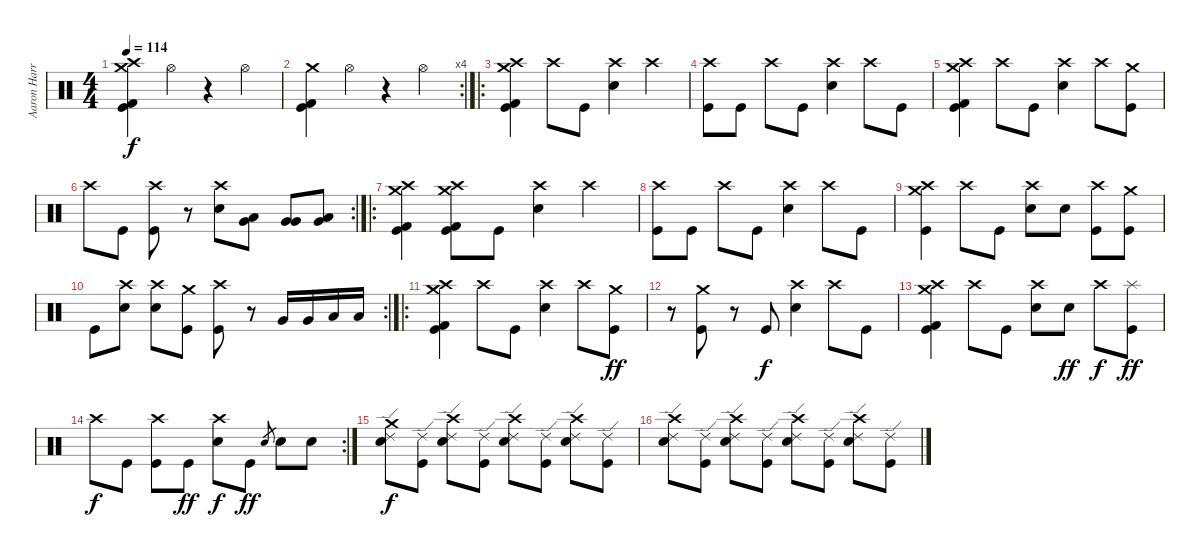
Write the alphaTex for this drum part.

\track ("Aaron Harris" "Aaron Harr") {instrument percussion}
\staff {score}
\articulation defaults
\ts (4 4)
\tempo 114
\clef neutral
\ks c
("Crash medium (hit)" "Crash high (hit)" "Kick (hit) 2" "Kick (hit)").4{dy f} "Hi-Hat (open)".4 r.4 "Hi-Hat (open)".4 |
\rc 4
("Crash medium (hit)" "Kick (hit) 2" "Kick (hit)").4 "Hi-Hat (open)".4 r.4 "Hi-Hat (open)".4 |
\ro
("Crash medium (hit)" "Crash high (hit)" "Kick (hit) 2" "Kick (hit)").4 "Crash high (hit)".8 "Kick (hit)".8 ("Crash high (hit)" "Electric Snare (hit)").4 "Crash high (hit)".4 |
("Crash high (hit)" "Kick (hit)").8 "Kick (hit)".8 "Crash high (hit)".8 "Kick (hit)".8 ("Crash high (hit)" "Electric Snare (hit)").4 "Crash high (hit)".8 "Kick (hit)".8 |
("Crash medium (hit)" "Crash high (hit)" "Kick (hit) 2" "Kick (hit)").4 "Crash high (hit)".8 "Kick (hit)".8 ("Crash high (hit)" "Electric Snare (hit)").4 "Crash high (hit)".8 ("Crash medium (hit)" "Kick (hit)").8 |
\rc 2 "Crash high (hit)".8 "Kick (hit)".8
("Crash high (hit)" "Kick (hit)").8 r.8 ("Crash high (hit)" "Electric Snare (hit)").8 ("Low Tom (hit)" "Very Low Tom (hit)").8 ("Very Low Tom (hit)" "Very Low Tom (hit)").8 ("Very Low Tom (hit)" "Low Floor Tom (hit)").8 |
\ro
("Crash medium (hit)" "Crash high (hit)" "Kick (hit) 2" "Kick (hit)").4 ("Crash medium (hit)" "Crash high (hit)" "Kick (hit) 2" "Kick (hit)").8 "Kick (hit)".8 ("Crash high (hit)" "Electric Snare (hit)").4 "Crash high (hit)".4 |
("Crash high (hit)" "Kick (hit)").8 "Kick (hit)".8 "Crash high (hit)".8 "Kick (hit)".8 ("Crash high (hit)" "Electric Snare (hit)").4 "Crash high (hit)".8 "Kick (hit)".8 |
("Crash medium (hit)" "Crash high (hit)" "Kick (hit)").4 "Crash high (hit)".8 "Kick (hit)".8 ("Crash high (hit)" "Electric Snare (hit)").8 "Electric Snare (hit)".8 ("Crash high (hit)" "Kick (hit)").8 ("Crash medium (hit)" "Kick (hit)").8 |
\rc 2 "Kick (hit)".8
("Crash high (hit)" "Electric Snare (hit)").8 ("Crash high (hit)" "Electric Snare (hit)").8 ("Crash medium (hit)" "Kick (hit)").8 ("Crash high (hit)" "Kick (hit)").8 r.8 "Very Low Tom (hit)".16 "Very Low Tom (hit)".16 "Low Floor Tom (hit)".16 "Low Floor Tom (hit)".16 |
\ro
("Crash medium (hit)" "Crash high (hit)" "Kick (hit) 2" "Kick (hit)").4 "Crash high (hit)".8 "Kick (hit)".8 ("Crash high (hit)" "Electric Snare (hit)").4 "Crash high (hit)".8 ("Crash medium (hit)" "Kick (hit)").8{dy ff} |
r.8 ("Crash medium (hit)" "Kick (hit)").8 r.8 "Kick (hit)".8{dy f} ("Crash high (hit)" "Electric Snare (hit)").4 "Crash high (hit)".8 "Kick (hit)".8 |
("Crash medium (hit)" "Crash high (hit)" "Kick (hit) 2" "Kick (hit)").4 "Crash high (hit)".8 "Kick (hit)".8 ("Crash high (hit)" "Electric Snare (hit)").8 "Electric Snare (hit)".8{dy ff} "Crash high (hit)".8{dy f} ("Splash (hit)" "Kick (hit)").8{dy ff} |
\rc 2 "Crash high (hit)".8{dy f} "Kick (hit)".8
("Crash high (hit)" "Kick (hit)").8 "Kick (hit)".8{dy ff} ("Crash high (hit)" "Electric Snare (hit)").8{dy f} "Kick (hit)".8{dy ff} "Electric Snare (hit)".8{gr} "Electric Snare (hit)".8 "Electric Snare (hit)".8 |
("Crash medium (hit)" "Ride (edge) 2" "Electric Snare (hit)").8{dy f} ("Ride (edge) 2" "Kick (hit)").8 ("Crash high (hit)" "Ride (edge) 2" "Electric Snare (hit)").8 ("Ride (edge) 2" "Kick (hit)").8 ("Crash high (hit)" "Ride (edge) 2" "Electric Snare (hit)").8 ("Ride (edge) 2" "Kick (hit)").8 ("Crash high (hit)" "Ride (edge) 2" "Electric Snare (hit)").8 ("Ride (edge) 2" "Kick (hit)").8 |
("Crash high (hit)" "Ride (edge) 2" "Electric Snare (hit)").8 ("Ride (edge) 2" "Kick (hit)").8 ("Crash high (hit)" "Ride (edge) 2" "Electric Snare (hit)").8 ("Ride (edge) 2" "Kick (hit)").8 ("Crash high (hit)" "Ride (edge) 2" "Electric Snare (hit)").8 ("Ride (edge) 2" "Kick (hit)").8 ("Crash high (hit)" "Ride (edge) 2" "Electric Snare (hit)").8 ("Ride (edge) 2" "Kick (hit)").8
